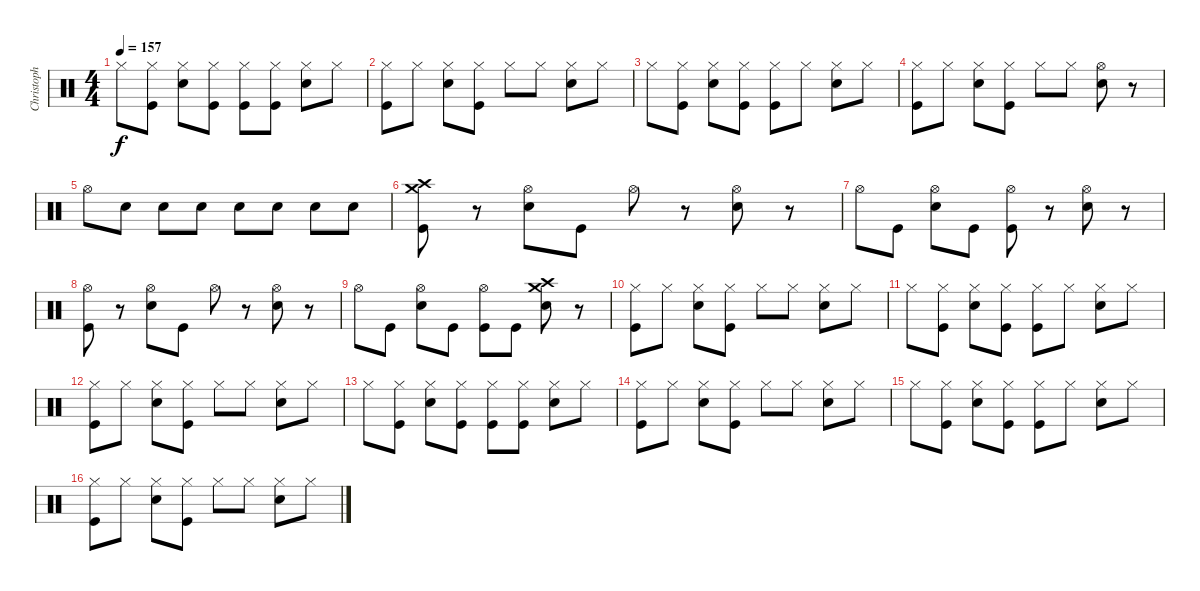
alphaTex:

\track ("Christoph" "Christoph") {instrument percussion}
\staff {score}
\articulation defaults
\ts (4 4)
\tempo 157
\clef neutral
\ks c "Hi-Hat (closed)".8{dy f}
("Hi-Hat (closed)" "Kick (hit)").8 ("Hi-Hat (closed)" "Snare (hit) 2").8 ("Hi-Hat (closed)" "Kick (hit)").8 ("Hi-Hat (closed)" "Kick (hit)").8 ("Hi-Hat (closed)" "Kick (hit)").8 ("Hi-Hat (closed)" "Snare (hit) 2").8 "Hi-Hat (closed)".8 |
("Hi-Hat (closed)" "Kick (hit)").8 "Hi-Hat (closed)".8 ("Hi-Hat (closed)" "Snare (hit) 2").8 ("Hi-Hat (closed)" "Kick (hit)").8 "Hi-Hat (closed)".8 "Hi-Hat (closed)".8 ("Hi-Hat (closed)" "Snare (hit) 2").8 "Hi-Hat (closed)".8 |
"Hi-Hat (closed)".8 ("Hi-Hat (closed)" "Kick (hit)").8 ("Hi-Hat (closed)" "Snare (hit) 2").8 ("Hi-Hat (closed)" "Kick (hit)").8 ("Hi-Hat (closed)" "Kick (hit)").8 "Hi-Hat (closed)".8 ("Hi-Hat (closed)" "Snare (hit) 2").8 "Hi-Hat (closed)".8 |
("Hi-Hat (closed)" "Kick (hit)").8 "Hi-Hat (closed)".8 ("Hi-Hat (closed)" "Snare (hit) 2").8 ("Hi-Hat (closed)" "Kick (hit)").8 "Hi-Hat (closed)".8 "Hi-Hat (closed)".8 ("Hi-Hat (open)" "Snare (hit) 2").8 r.8 |
"Hi-Hat (open)".8 "Snare (hit) 2".8 "Snare (hit) 2".8 "Snare (hit) 2".8 "Snare (hit) 2".8 "Snare (hit) 2".8 "Snare (hit) 2".8 "Snare (hit) 2".8 |
("Crash medium (hit)" "Crash high (hit)" "Kick (hit)").8 r.8 ("Hi-Hat (open)" "Snare (hit) 2").8 "Kick (hit)".8 "Hi-Hat (open)".8 r.8 ("Hi-Hat (open)" "Snare (hit) 2").8 r.8 |
"Hi-Hat (open)".8 "Kick (hit)".8 ("Hi-Hat (open)" "Snare (hit) 2").8 "Kick (hit)".8 ("Hi-Hat (open)" "Kick (hit)").8 r.8 ("Hi-Hat (open)" "Snare (hit) 2").8 r.8 |
("Hi-Hat (open)" "Kick (hit)").8 r.8 ("Hi-Hat (open)" "Snare (hit) 2").8 "Kick (hit)".8 "Hi-Hat (open)".8 r.8 ("Hi-Hat (open)" "Snare (hit) 2").8 r.8 |
"Hi-Hat (open)".8 "Kick (hit)".8 ("Hi-Hat (open)" "Snare (hit) 2").8 "Kick (hit)".8 ("Hi-Hat (open)" "Kick (hit)").8 "Kick (hit)".8 ("Crash medium (hit)" "Snare (hit) 2" "Crash high (hit)").8 r.8 |
("Hi-Hat (closed)" "Kick (hit)").8 "Hi-Hat (closed)".8 ("Hi-Hat (closed)" "Snare (hit) 2").8 ("Hi-Hat (closed)" "Kick (hit)").8 "Hi-Hat (closed)".8 "Hi-Hat (closed)".8 ("Hi-Hat (closed)" "Snare (hit) 2").8 "Hi-Hat (closed)".8 |
"Hi-Hat (closed)".8 ("Hi-Hat (closed)" "Kick (hit)").8 ("Hi-Hat (closed)" "Snare (hit) 2").8 ("Hi-Hat (closed)" "Kick (hit)").8 ("Hi-Hat (closed)" "Kick (hit)").8 "Hi-Hat (closed)".8 ("Hi-Hat (closed)" "Snare (hit) 2").8 "Hi-Hat (closed)".8 |
("Hi-Hat (closed)" "Kick (hit)").8 "Hi-Hat (closed)".8 ("Hi-Hat (closed)" "Snare (hit) 2").8 ("Hi-Hat (closed)" "Kick (hit)").8 "Hi-Hat (closed)".8 "Hi-Hat (closed)".8 ("Hi-Hat (closed)" "Snare (hit) 2").8 "Hi-Hat (closed)".8 |
"Hi-Hat (closed)".8 ("Hi-Hat (closed)" "Kick (hit)").8 ("Hi-Hat (closed)" "Snare (hit) 2").8 ("Hi-Hat (closed)" "Kick (hit)").8 ("Hi-Hat (closed)" "Kick (hit)").8 ("Hi-Hat (closed)" "Kick (hit)").8 ("Hi-Hat (closed)" "Snare (hit) 2").8 "Hi-Hat (closed)".8 |
("Hi-Hat (closed)" "Kick (hit)").8 "Hi-Hat (closed)".8 ("Hi-Hat (closed)" "Snare (hit) 2").8 ("Hi-Hat (closed)" "Kick (hit)").8 "Hi-Hat (closed)".8 "Hi-Hat (closed)".8 ("Hi-Hat (closed)" "Snare (hit) 2").8 "Hi-Hat (closed)".8 |
"Hi-Hat (closed)".8 ("Hi-Hat (closed)" "Kick (hit)").8 ("Hi-Hat (closed)" "Snare (hit) 2").8 ("Hi-Hat (closed)" "Kick (hit)").8 ("Hi-Hat (closed)" "Kick (hit)").8 "Hi-Hat (closed)".8 ("Hi-Hat (closed)" "Snare (hit) 2").8 "Hi-Hat (closed)".8 |
("Hi-Hat (closed)" "Kick (hit)").8 "Hi-Hat (closed)".8 ("Hi-Hat (closed)" "Snare (hit) 2").8 ("Hi-Hat (closed)" "Kick (hit)").8 "Hi-Hat (closed)".8 "Hi-Hat (closed)".8 ("Hi-Hat (closed)" "Snare (hit) 2").8 "Hi-Hat (closed)".8
